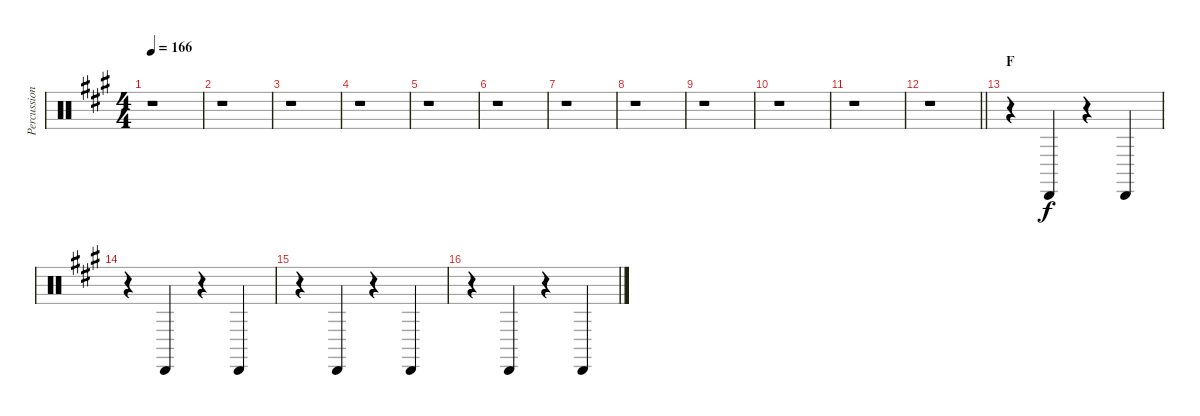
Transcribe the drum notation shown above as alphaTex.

\track ("Percussion IV" "Percussion") {instrument percussion}
\staff {score}
\articulation defaults
\ts (4 4)
\tempo 166
\clef neutral
\ks a
r.1{dy f} |
r.1 |
r.1 |
r.1 |
r.1 |
r.1 |
r.1 |
r.1 |
r.1 |
r.1 |
r.1 |
\barLineRight lightlight
r.1 |
\section ("" "F")
r.4 "Cabasa (hit)".4 r.4 "Cabasa (hit)".4 |
r.4 "Cabasa (hit)".4 r.4 "Cabasa (hit)".4 |
r.4 "Cabasa (hit)".4 r.4 "Cabasa (hit)".4 |
r.4 "Cabasa (hit)".4 r.4 "Cabasa (hit)".4
